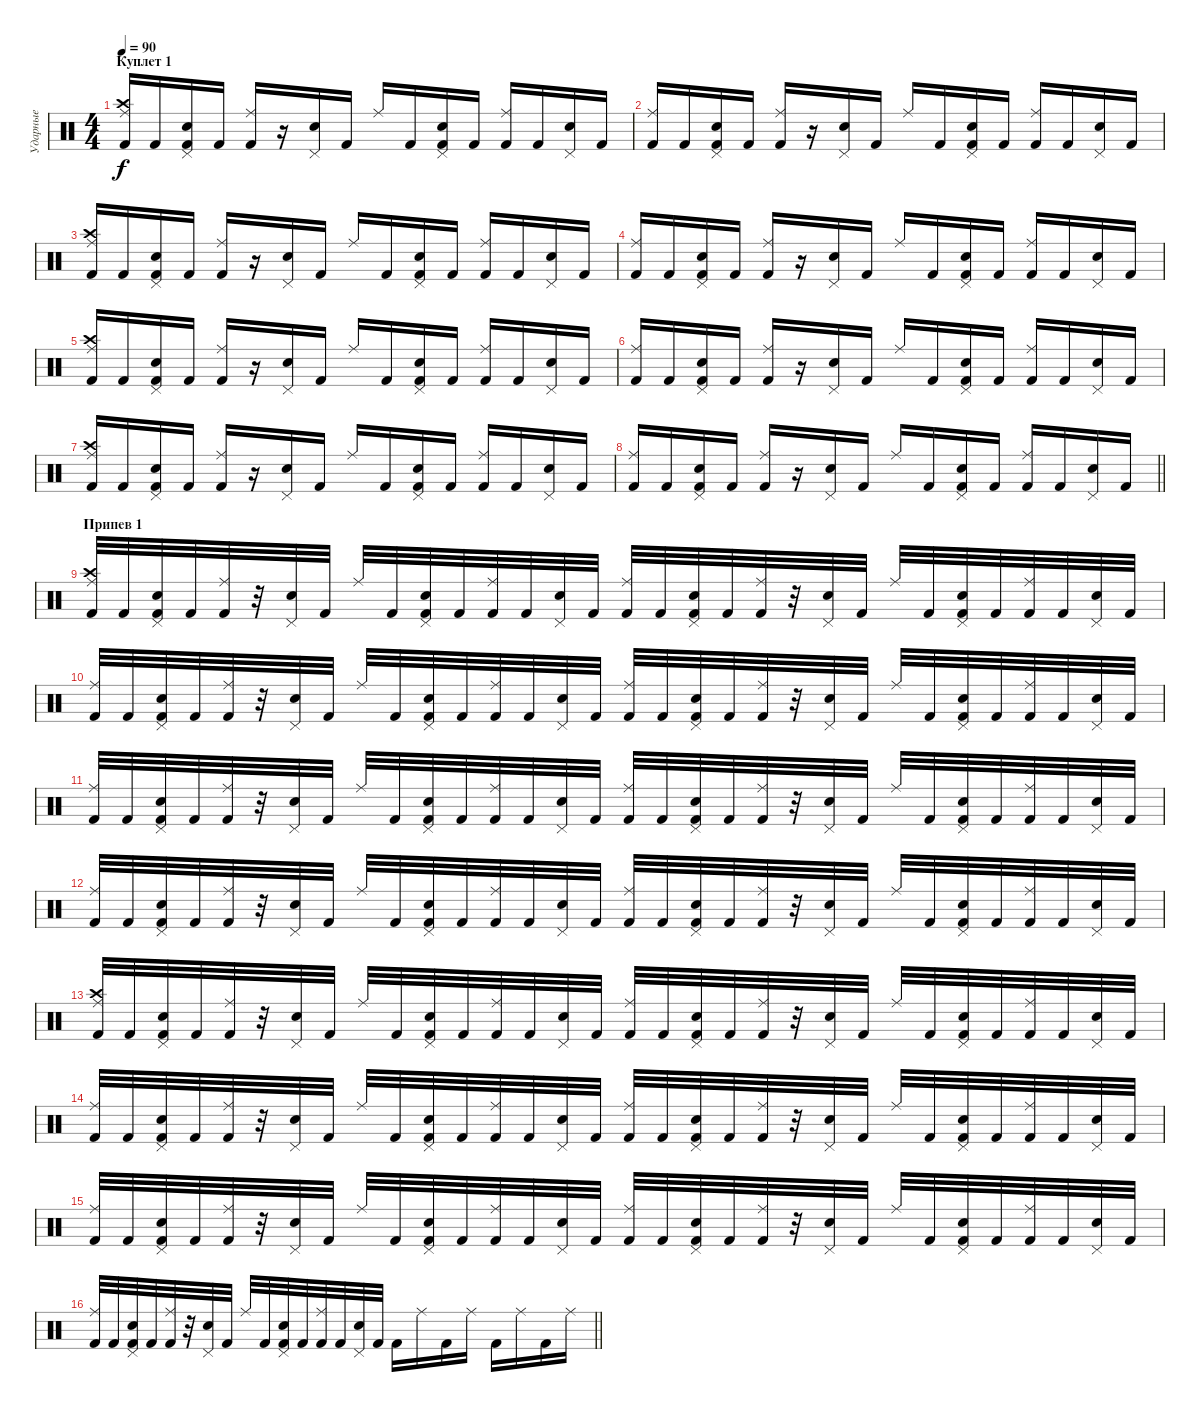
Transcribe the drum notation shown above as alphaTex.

\track ("Ударные" "Ударные") {instrument percussion}
\staff {score}
\articulation defaults
\ts (4 4)
\section ("" "Куплет 1")
\tempo 90
\clef neutral
\ks c
("Kick (hit) 2" "Crash high (hit)" "Ride (middle)").16{dy f} "Kick (hit) 2".16 ("Kick (hit) 2" "Snare (hit) 2" "Pedal Hi-Hat (hit)").16 "Kick (hit) 2".16 ("Kick (hit) 2" "Ride (middle)").16 r.16 ("Snare (hit) 2" "Pedal Hi-Hat (hit)").16 "Kick (hit) 2".16 "Ride (middle)".16 "Kick (hit) 2".16 ("Kick (hit) 2" "Snare (hit) 2" "Pedal Hi-Hat (hit)").16 "Kick (hit) 2".16 ("Kick (hit) 2" "Ride (middle)").16 "Kick (hit) 2".16 ("Snare (hit) 2" "Pedal Hi-Hat (hit)").16 "Kick (hit) 2".16 |
("Kick (hit) 2" "Ride (middle)").16 "Kick (hit) 2".16 ("Kick (hit) 2" "Snare (hit) 2" "Pedal Hi-Hat (hit)").16 "Kick (hit) 2".16 ("Kick (hit) 2" "Ride (middle)").16 r.16 ("Snare (hit) 2" "Pedal Hi-Hat (hit)").16 "Kick (hit) 2".16 "Ride (middle)".16 "Kick (hit) 2".16 ("Kick (hit) 2" "Snare (hit) 2" "Pedal Hi-Hat (hit)").16 "Kick (hit) 2".16 ("Kick (hit) 2" "Ride (middle)").16 "Kick (hit) 2".16 ("Snare (hit) 2" "Pedal Hi-Hat (hit)").16 "Kick (hit) 2".16 |
("Kick (hit) 2" "Crash high (hit)" "Ride (middle)").16 "Kick (hit) 2".16 ("Kick (hit) 2" "Snare (hit) 2" "Pedal Hi-Hat (hit)").16 "Kick (hit) 2".16 ("Kick (hit) 2" "Ride (middle)").16 r.16 ("Snare (hit) 2" "Pedal Hi-Hat (hit)").16 "Kick (hit) 2".16 "Ride (middle)".16 "Kick (hit) 2".16 ("Kick (hit) 2" "Snare (hit) 2" "Pedal Hi-Hat (hit)").16 "Kick (hit) 2".16 ("Kick (hit) 2" "Ride (middle)").16 "Kick (hit) 2".16 ("Snare (hit) 2" "Pedal Hi-Hat (hit)").16 "Kick (hit) 2".16 |
("Kick (hit) 2" "Ride (middle)").16 "Kick (hit) 2".16 ("Kick (hit) 2" "Snare (hit) 2" "Pedal Hi-Hat (hit)").16 "Kick (hit) 2".16 ("Kick (hit) 2" "Ride (middle)").16 r.16 ("Snare (hit) 2" "Pedal Hi-Hat (hit)").16 "Kick (hit) 2".16 "Ride (middle)".16 "Kick (hit) 2".16 ("Kick (hit) 2" "Snare (hit) 2" "Pedal Hi-Hat (hit)").16 "Kick (hit) 2".16 ("Kick (hit) 2" "Ride (middle)").16 "Kick (hit) 2".16 ("Snare (hit) 2" "Pedal Hi-Hat (hit)").16 "Kick (hit) 2".16 |
("Kick (hit) 2" "Crash high (hit)" "Ride (middle)").16 "Kick (hit) 2".16 ("Kick (hit) 2" "Snare (hit) 2" "Pedal Hi-Hat (hit)").16 "Kick (hit) 2".16 ("Kick (hit) 2" "Ride (middle)").16 r.16 ("Snare (hit) 2" "Pedal Hi-Hat (hit)").16 "Kick (hit) 2".16 "Ride (middle)".16 "Kick (hit) 2".16 ("Kick (hit) 2" "Snare (hit) 2" "Pedal Hi-Hat (hit)").16 "Kick (hit) 2".16 ("Kick (hit) 2" "Ride (middle)").16 "Kick (hit) 2".16 ("Snare (hit) 2" "Pedal Hi-Hat (hit)").16 "Kick (hit) 2".16 |
("Kick (hit) 2" "Ride (middle)").16 "Kick (hit) 2".16 ("Kick (hit) 2" "Snare (hit) 2" "Pedal Hi-Hat (hit)").16 "Kick (hit) 2".16 ("Kick (hit) 2" "Ride (middle)").16 r.16 ("Snare (hit) 2" "Pedal Hi-Hat (hit)").16 "Kick (hit) 2".16 "Ride (middle)".16 "Kick (hit) 2".16 ("Kick (hit) 2" "Snare (hit) 2" "Pedal Hi-Hat (hit)").16 "Kick (hit) 2".16 ("Kick (hit) 2" "Ride (middle)").16 "Kick (hit) 2".16 ("Snare (hit) 2" "Pedal Hi-Hat (hit)").16 "Kick (hit) 2".16 |
("Kick (hit) 2" "Crash high (hit)" "Ride (middle)").16 "Kick (hit) 2".16 ("Kick (hit) 2" "Snare (hit) 2" "Pedal Hi-Hat (hit)").16 "Kick (hit) 2".16 ("Kick (hit) 2" "Ride (middle)").16 r.16 ("Snare (hit) 2" "Pedal Hi-Hat (hit)").16 "Kick (hit) 2".16 "Ride (middle)".16 "Kick (hit) 2".16 ("Kick (hit) 2" "Snare (hit) 2" "Pedal Hi-Hat (hit)").16 "Kick (hit) 2".16 ("Kick (hit) 2" "Ride (middle)").16 "Kick (hit) 2".16 ("Snare (hit) 2" "Pedal Hi-Hat (hit)").16 "Kick (hit) 2".16 |
\barLineRight lightlight
("Kick (hit) 2" "Ride (middle)").16 "Kick (hit) 2".16 ("Kick (hit) 2" "Snare (hit) 2" "Pedal Hi-Hat (hit)").16 "Kick (hit) 2".16 ("Kick (hit) 2" "Ride (middle)").16 r.16 ("Snare (hit) 2" "Pedal Hi-Hat (hit)").16 "Kick (hit) 2".16 "Ride (middle)".16 "Kick (hit) 2".16 ("Kick (hit) 2" "Snare (hit) 2" "Pedal Hi-Hat (hit)").16 "Kick (hit) 2".16 ("Kick (hit) 2" "Ride (middle)").16 "Kick (hit) 2".16 ("Snare (hit) 2" "Pedal Hi-Hat (hit)").16 "Kick (hit) 2".16 |
\section ("" "Припев 1")
("Kick (hit) 2" "Crash high (hit)" "Ride (middle)").32 "Kick (hit) 2".32 ("Kick (hit) 2" "Snare (hit) 2" "Pedal Hi-Hat (hit)").32 "Kick (hit) 2".32 ("Kick (hit) 2" "Ride (middle)").32 r.32 ("Snare (hit) 2" "Pedal Hi-Hat (hit)").32 "Kick (hit) 2".32 "Ride (middle)".32 "Kick (hit) 2".32 ("Kick (hit) 2" "Snare (hit) 2" "Pedal Hi-Hat (hit)").32 "Kick (hit) 2".32 ("Kick (hit) 2" "Ride (middle)").32 "Kick (hit) 2".32 ("Snare (hit) 2" "Pedal Hi-Hat (hit)").32 "Kick (hit) 2".32 ("Kick (hit) 2" "Ride (middle)").32 "Kick (hit) 2".32 ("Kick (hit) 2" "Snare (hit) 2" "Pedal Hi-Hat (hit)").32 "Kick (hit) 2".32 ("Kick (hit) 2" "Ride (middle)").32 r.32 ("Snare (hit) 2" "Pedal Hi-Hat (hit)").32 "Kick (hit) 2".32 "Ride (middle)".32 "Kick (hit) 2".32 ("Kick (hit) 2" "Snare (hit) 2" "Pedal Hi-Hat (hit)").32 "Kick (hit) 2".32 ("Kick (hit) 2" "Ride (middle)").32 "Kick (hit) 2".32 ("Snare (hit) 2" "Pedal Hi-Hat (hit)").32 "Kick (hit) 2".32 |
("Kick (hit) 2" "Ride (middle)").32 "Kick (hit) 2".32 ("Kick (hit) 2" "Snare (hit) 2" "Pedal Hi-Hat (hit)").32 "Kick (hit) 2".32 ("Kick (hit) 2" "Ride (middle)").32 r.32 ("Snare (hit) 2" "Pedal Hi-Hat (hit)").32 "Kick (hit) 2".32 "Ride (middle)".32 "Kick (hit) 2".32 ("Kick (hit) 2" "Snare (hit) 2" "Pedal Hi-Hat (hit)").32 "Kick (hit) 2".32 ("Kick (hit) 2" "Ride (middle)").32 "Kick (hit) 2".32 ("Snare (hit) 2" "Pedal Hi-Hat (hit)").32 "Kick (hit) 2".32 ("Kick (hit) 2" "Ride (middle)").32 "Kick (hit) 2".32 ("Kick (hit) 2" "Snare (hit) 2" "Pedal Hi-Hat (hit)").32 "Kick (hit) 2".32 ("Kick (hit) 2" "Ride (middle)").32 r.32 ("Snare (hit) 2" "Pedal Hi-Hat (hit)").32 "Kick (hit) 2".32 "Ride (middle)".32 "Kick (hit) 2".32 ("Kick (hit) 2" "Snare (hit) 2" "Pedal Hi-Hat (hit)").32 "Kick (hit) 2".32 ("Kick (hit) 2" "Ride (middle)").32 "Kick (hit) 2".32 ("Snare (hit) 2" "Pedal Hi-Hat (hit)").32 "Kick (hit) 2".32 |
("Kick (hit) 2" "Ride (middle)").32 "Kick (hit) 2".32 ("Kick (hit) 2" "Snare (hit) 2" "Pedal Hi-Hat (hit)").32 "Kick (hit) 2".32 ("Kick (hit) 2" "Ride (middle)").32 r.32 ("Snare (hit) 2" "Pedal Hi-Hat (hit)").32 "Kick (hit) 2".32 "Ride (middle)".32 "Kick (hit) 2".32 ("Kick (hit) 2" "Snare (hit) 2" "Pedal Hi-Hat (hit)").32 "Kick (hit) 2".32 ("Kick (hit) 2" "Ride (middle)").32 "Kick (hit) 2".32 ("Snare (hit) 2" "Pedal Hi-Hat (hit)").32 "Kick (hit) 2".32 ("Kick (hit) 2" "Ride (middle)").32 "Kick (hit) 2".32 ("Kick (hit) 2" "Snare (hit) 2" "Pedal Hi-Hat (hit)").32 "Kick (hit) 2".32 ("Kick (hit) 2" "Ride (middle)").32 r.32 ("Snare (hit) 2" "Pedal Hi-Hat (hit)").32 "Kick (hit) 2".32 "Ride (middle)".32 "Kick (hit) 2".32 ("Kick (hit) 2" "Snare (hit) 2" "Pedal Hi-Hat (hit)").32 "Kick (hit) 2".32 ("Kick (hit) 2" "Ride (middle)").32 "Kick (hit) 2".32 ("Snare (hit) 2" "Pedal Hi-Hat (hit)").32 "Kick (hit) 2".32 |
("Kick (hit) 2" "Ride (middle)").32 "Kick (hit) 2".32 ("Kick (hit) 2" "Snare (hit) 2" "Pedal Hi-Hat (hit)").32 "Kick (hit) 2".32 ("Kick (hit) 2" "Ride (middle)").32 r.32 ("Snare (hit) 2" "Pedal Hi-Hat (hit)").32 "Kick (hit) 2".32 "Ride (middle)".32 "Kick (hit) 2".32 ("Kick (hit) 2" "Snare (hit) 2" "Pedal Hi-Hat (hit)").32 "Kick (hit) 2".32 ("Kick (hit) 2" "Ride (middle)").32 "Kick (hit) 2".32 ("Snare (hit) 2" "Pedal Hi-Hat (hit)").32 "Kick (hit) 2".32 ("Kick (hit) 2" "Ride (middle)").32 "Kick (hit) 2".32 ("Kick (hit) 2" "Snare (hit) 2" "Pedal Hi-Hat (hit)").32 "Kick (hit) 2".32 ("Kick (hit) 2" "Ride (middle)").32 r.32 ("Snare (hit) 2" "Pedal Hi-Hat (hit)").32 "Kick (hit) 2".32 "Ride (middle)".32 "Kick (hit) 2".32 ("Kick (hit) 2" "Snare (hit) 2" "Pedal Hi-Hat (hit)").32 "Kick (hit) 2".32 ("Kick (hit) 2" "Ride (middle)").32 "Kick (hit) 2".32 ("Snare (hit) 2" "Pedal Hi-Hat (hit)").32 "Kick (hit) 2".32 |
("Kick (hit) 2" "Crash high (hit)" "Ride (middle)").32 "Kick (hit) 2".32 ("Kick (hit) 2" "Snare (hit) 2" "Pedal Hi-Hat (hit)").32 "Kick (hit) 2".32 ("Kick (hit) 2" "Ride (middle)").32 r.32 ("Snare (hit) 2" "Pedal Hi-Hat (hit)").32 "Kick (hit) 2".32 "Ride (middle)".32 "Kick (hit) 2".32 ("Kick (hit) 2" "Snare (hit) 2" "Pedal Hi-Hat (hit)").32 "Kick (hit) 2".32 ("Kick (hit) 2" "Ride (middle)").32 "Kick (hit) 2".32 ("Snare (hit) 2" "Pedal Hi-Hat (hit)").32 "Kick (hit) 2".32 ("Kick (hit) 2" "Ride (middle)").32 "Kick (hit) 2".32 ("Kick (hit) 2" "Snare (hit) 2" "Pedal Hi-Hat (hit)").32 "Kick (hit) 2".32 ("Kick (hit) 2" "Ride (middle)").32 r.32 ("Snare (hit) 2" "Pedal Hi-Hat (hit)").32 "Kick (hit) 2".32 "Ride (middle)".32 "Kick (hit) 2".32 ("Kick (hit) 2" "Snare (hit) 2" "Pedal Hi-Hat (hit)").32 "Kick (hit) 2".32 ("Kick (hit) 2" "Ride (middle)").32 "Kick (hit) 2".32 ("Snare (hit) 2" "Pedal Hi-Hat (hit)").32 "Kick (hit) 2".32 |
("Kick (hit) 2" "Ride (middle)").32 "Kick (hit) 2".32 ("Kick (hit) 2" "Snare (hit) 2" "Pedal Hi-Hat (hit)").32 "Kick (hit) 2".32 ("Kick (hit) 2" "Ride (middle)").32 r.32 ("Snare (hit) 2" "Pedal Hi-Hat (hit)").32 "Kick (hit) 2".32 "Ride (middle)".32 "Kick (hit) 2".32 ("Kick (hit) 2" "Snare (hit) 2" "Pedal Hi-Hat (hit)").32 "Kick (hit) 2".32 ("Kick (hit) 2" "Ride (middle)").32 "Kick (hit) 2".32 ("Snare (hit) 2" "Pedal Hi-Hat (hit)").32 "Kick (hit) 2".32 ("Kick (hit) 2" "Ride (middle)").32 "Kick (hit) 2".32 ("Kick (hit) 2" "Snare (hit) 2" "Pedal Hi-Hat (hit)").32 "Kick (hit) 2".32 ("Kick (hit) 2" "Ride (middle)").32 r.32 ("Snare (hit) 2" "Pedal Hi-Hat (hit)").32 "Kick (hit) 2".32 "Ride (middle)".32 "Kick (hit) 2".32 ("Kick (hit) 2" "Snare (hit) 2" "Pedal Hi-Hat (hit)").32 "Kick (hit) 2".32 ("Kick (hit) 2" "Ride (middle)").32 "Kick (hit) 2".32 ("Snare (hit) 2" "Pedal Hi-Hat (hit)").32 "Kick (hit) 2".32 |
("Kick (hit) 2" "Ride (middle)").32 "Kick (hit) 2".32 ("Kick (hit) 2" "Snare (hit) 2" "Pedal Hi-Hat (hit)").32 "Kick (hit) 2".32 ("Kick (hit) 2" "Ride (middle)").32 r.32 ("Snare (hit) 2" "Pedal Hi-Hat (hit)").32 "Kick (hit) 2".32 "Ride (middle)".32 "Kick (hit) 2".32 ("Kick (hit) 2" "Snare (hit) 2" "Pedal Hi-Hat (hit)").32 "Kick (hit) 2".32 ("Kick (hit) 2" "Ride (middle)").32 "Kick (hit) 2".32 ("Snare (hit) 2" "Pedal Hi-Hat (hit)").32 "Kick (hit) 2".32 ("Kick (hit) 2" "Ride (middle)").32 "Kick (hit) 2".32 ("Kick (hit) 2" "Snare (hit) 2" "Pedal Hi-Hat (hit)").32 "Kick (hit) 2".32 ("Kick (hit) 2" "Ride (middle)").32 r.32 ("Snare (hit) 2" "Pedal Hi-Hat (hit)").32 "Kick (hit) 2".32 "Ride (middle)".32 "Kick (hit) 2".32 ("Kick (hit) 2" "Snare (hit) 2" "Pedal Hi-Hat (hit)").32 "Kick (hit) 2".32 ("Kick (hit) 2" "Ride (middle)").32 "Kick (hit) 2".32 ("Snare (hit) 2" "Pedal Hi-Hat (hit)").32 "Kick (hit) 2".32 |
\barLineRight lightlight
("Kick (hit) 2" "Ride (middle)").32 "Kick (hit) 2".32 ("Kick (hit) 2" "Snare (hit) 2" "Pedal Hi-Hat (hit)").32 "Kick (hit) 2".32 ("Kick (hit) 2" "Ride (middle)").32 r.32 ("Snare (hit) 2" "Pedal Hi-Hat (hit)").32 "Kick (hit) 2".32 "Ride (middle)".32 "Kick (hit) 2".32 ("Kick (hit) 2" "Snare (hit) 2" "Pedal Hi-Hat (hit)").32 "Kick (hit) 2".32 ("Kick (hit) 2" "Ride (middle)").32 "Kick (hit) 2".32 ("Snare (hit) 2" "Pedal Hi-Hat (hit)").32 "Kick (hit) 2".32 "Kick (hit) 2".16 "Ride (middle)".16 "Kick (hit) 2".16 "Ride (middle)".16 "Kick (hit) 2".16 "Ride (middle)".16 "Kick (hit) 2".16 "Ride (middle)".16
